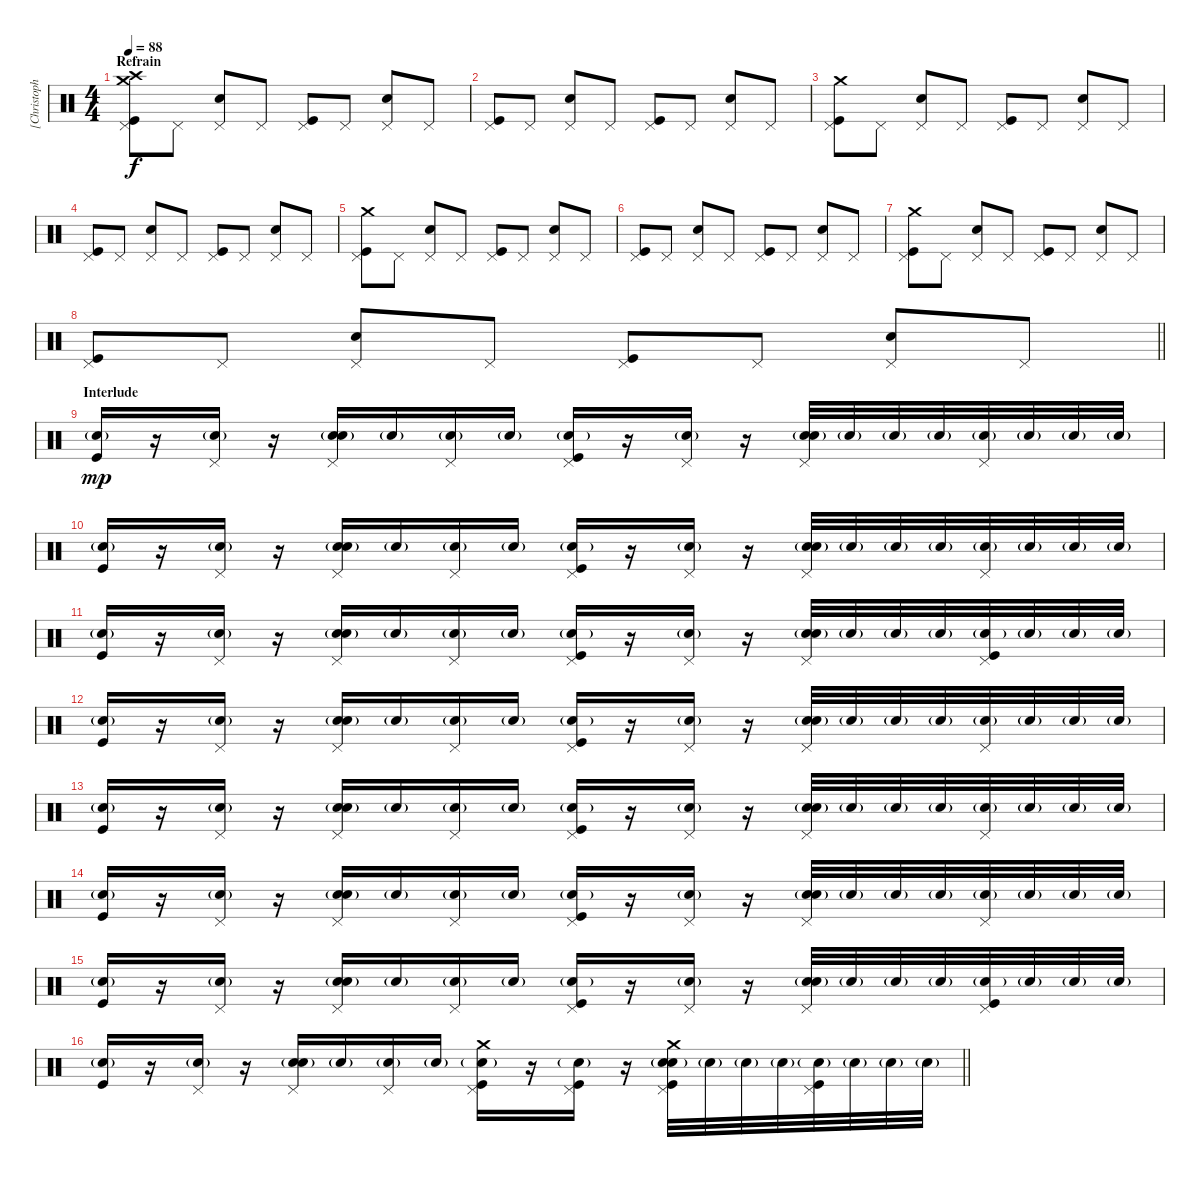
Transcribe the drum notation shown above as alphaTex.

\track ("[Christoph Schneider]  Drums" "[Christoph") {instrument percussion}
\staff {score}
\articulation defaults
\ts (4 4)
\section ("" "Refrain")
\tempo 88
\clef neutral
\ks c
("Crash medium (hit)" "Pedal Hi-Hat (hit)" "Crash high (hit)" "Kick (hit)").8{dy f} "Pedal Hi-Hat (hit)".8 ("Pedal Hi-Hat (hit)" "Electric Snare (hit)").8 "Pedal Hi-Hat (hit)".8 ("Pedal Hi-Hat (hit)" "Kick (hit)").8 "Pedal Hi-Hat (hit)".8 ("Pedal Hi-Hat (hit)" "Electric Snare (hit)").8 "Pedal Hi-Hat (hit)".8 |
("Pedal Hi-Hat (hit)" "Kick (hit)").8 "Pedal Hi-Hat (hit)".8 ("Pedal Hi-Hat (hit)" "Electric Snare (hit)").8 "Pedal Hi-Hat (hit)".8 ("Pedal Hi-Hat (hit)" "Kick (hit)").8 "Pedal Hi-Hat (hit)".8 ("Pedal Hi-Hat (hit)" "Electric Snare (hit)").8 "Pedal Hi-Hat (hit)".8 |
("Crash medium (hit)" "Pedal Hi-Hat (hit)" "Kick (hit)").8 "Pedal Hi-Hat (hit)".8 ("Pedal Hi-Hat (hit)" "Electric Snare (hit)").8 "Pedal Hi-Hat (hit)".8 ("Pedal Hi-Hat (hit)" "Kick (hit)").8 "Pedal Hi-Hat (hit)".8 ("Pedal Hi-Hat (hit)" "Electric Snare (hit)").8 "Pedal Hi-Hat (hit)".8 |
("Pedal Hi-Hat (hit)" "Kick (hit)").8 "Pedal Hi-Hat (hit)".8 ("Pedal Hi-Hat (hit)" "Electric Snare (hit)").8 "Pedal Hi-Hat (hit)".8 ("Pedal Hi-Hat (hit)" "Kick (hit)").8 "Pedal Hi-Hat (hit)".8 ("Pedal Hi-Hat (hit)" "Electric Snare (hit)").8 "Pedal Hi-Hat (hit)".8 |
("Crash medium (hit)" "Pedal Hi-Hat (hit)" "Kick (hit)").8 "Pedal Hi-Hat (hit)".8 ("Pedal Hi-Hat (hit)" "Electric Snare (hit)").8 "Pedal Hi-Hat (hit)".8 ("Pedal Hi-Hat (hit)" "Kick (hit)").8 "Pedal Hi-Hat (hit)".8 ("Pedal Hi-Hat (hit)" "Electric Snare (hit)").8 "Pedal Hi-Hat (hit)".8 |
("Pedal Hi-Hat (hit)" "Kick (hit)").8 "Pedal Hi-Hat (hit)".8 ("Pedal Hi-Hat (hit)" "Electric Snare (hit)").8 "Pedal Hi-Hat (hit)".8 ("Pedal Hi-Hat (hit)" "Kick (hit)").8 "Pedal Hi-Hat (hit)".8 ("Pedal Hi-Hat (hit)" "Electric Snare (hit)").8 "Pedal Hi-Hat (hit)".8 |
("Crash medium (hit)" "Pedal Hi-Hat (hit)" "Kick (hit)").8 "Pedal Hi-Hat (hit)".8 ("Pedal Hi-Hat (hit)" "Electric Snare (hit)").8 "Pedal Hi-Hat (hit)".8 ("Pedal Hi-Hat (hit)" "Kick (hit)").8 "Pedal Hi-Hat (hit)".8 ("Pedal Hi-Hat (hit)" "Electric Snare (hit)").8 "Pedal Hi-Hat (hit)".8 |
\barLineRight lightlight
("Pedal Hi-Hat (hit)" "Kick (hit)").8 "Pedal Hi-Hat (hit)".8 ("Pedal Hi-Hat (hit)" "Electric Snare (hit)").8 "Pedal Hi-Hat (hit)".8 ("Pedal Hi-Hat (hit)" "Kick (hit)").8 "Pedal Hi-Hat (hit)".8 ("Pedal Hi-Hat (hit)" "Electric Snare (hit)").8 "Pedal Hi-Hat (hit)".8 |
\section ("" "Interlude")
("Kick (hit)" "Electric Snare (hit)"{g}).16{dy mp} r.16 ("Pedal Hi-Hat (hit)" "Electric Snare (hit)"{g}).16 r.16 ("Pedal Hi-Hat (hit)" "Snare (hit) 2" "Electric Snare (hit)"{g}).16 "Electric Snare (hit)"{g}.16 ("Pedal Hi-Hat (hit)" "Electric Snare (hit)"{g}).16 "Electric Snare (hit)"{g}.16 ("Pedal Hi-Hat (hit)" "Kick (hit)" "Electric Snare (hit)"{g}).16 r.16 ("Pedal Hi-Hat (hit)" "Electric Snare (hit)"{g}).16 r.16 ("Pedal Hi-Hat (hit)" "Snare (hit) 2" "Electric Snare (hit)"{g}).32 "Electric Snare (hit)"{g}.32 "Electric Snare (hit)"{g}.32 "Electric Snare (hit)"{g}.32 ("Pedal Hi-Hat (hit)" "Electric Snare (hit)"{g}).32 "Electric Snare (hit)"{g}.32 "Electric Snare (hit)"{g}.32 "Electric Snare (hit)"{g}.32 |
("Kick (hit)" "Electric Snare (hit)"{g}).16 r.16 ("Pedal Hi-Hat (hit)" "Electric Snare (hit)"{g}).16 r.16 ("Pedal Hi-Hat (hit)" "Snare (hit) 2" "Electric Snare (hit)"{g}).16 "Electric Snare (hit)"{g}.16 ("Pedal Hi-Hat (hit)" "Electric Snare (hit)"{g}).16 "Electric Snare (hit)"{g}.16 ("Pedal Hi-Hat (hit)" "Kick (hit)" "Electric Snare (hit)"{g}).16 r.16 ("Pedal Hi-Hat (hit)" "Electric Snare (hit)"{g}).16 r.16 ("Pedal Hi-Hat (hit)" "Snare (hit) 2" "Electric Snare (hit)"{g}).32 "Electric Snare (hit)"{g}.32 "Electric Snare (hit)"{g}.32 "Electric Snare (hit)"{g}.32 ("Pedal Hi-Hat (hit)" "Electric Snare (hit)"{g}).32 "Electric Snare (hit)"{g}.32 "Electric Snare (hit)"{g}.32 "Electric Snare (hit)"{g}.32 |
("Kick (hit)" "Electric Snare (hit)"{g}).16 r.16 ("Pedal Hi-Hat (hit)" "Electric Snare (hit)"{g}).16 r.16 ("Pedal Hi-Hat (hit)" "Snare (hit) 2" "Electric Snare (hit)"{g}).16 "Electric Snare (hit)"{g}.16 ("Pedal Hi-Hat (hit)" "Electric Snare (hit)"{g}).16 "Electric Snare (hit)"{g}.16 ("Pedal Hi-Hat (hit)" "Kick (hit)" "Electric Snare (hit)"{g}).16 r.16 ("Pedal Hi-Hat (hit)" "Electric Snare (hit)"{g}).16 r.16 ("Pedal Hi-Hat (hit)" "Snare (hit) 2" "Electric Snare (hit)"{g}).32 "Electric Snare (hit)"{g}.32 "Electric Snare (hit)"{g}.32 "Electric Snare (hit)"{g}.32 ("Kick (hit)" "Pedal Hi-Hat (hit)" "Electric Snare (hit)"{g}).32 "Electric Snare (hit)"{g}.32 "Electric Snare (hit)"{g}.32 "Electric Snare (hit)"{g}.32 |
("Kick (hit)" "Electric Snare (hit)"{g}).16 r.16 ("Pedal Hi-Hat (hit)" "Electric Snare (hit)"{g}).16 r.16 ("Pedal Hi-Hat (hit)" "Snare (hit) 2" "Electric Snare (hit)"{g}).16 "Electric Snare (hit)"{g}.16 ("Pedal Hi-Hat (hit)" "Electric Snare (hit)"{g}).16 "Electric Snare (hit)"{g}.16 ("Pedal Hi-Hat (hit)" "Kick (hit)" "Electric Snare (hit)"{g}).16 r.16 ("Pedal Hi-Hat (hit)" "Electric Snare (hit)"{g}).16 r.16 ("Pedal Hi-Hat (hit)" "Snare (hit) 2" "Electric Snare (hit)"{g}).32 "Electric Snare (hit)"{g}.32 "Electric Snare (hit)"{g}.32 "Electric Snare (hit)"{g}.32 ("Pedal Hi-Hat (hit)" "Electric Snare (hit)"{g}).32 "Electric Snare (hit)"{g}.32 "Electric Snare (hit)"{g}.32 "Electric Snare (hit)"{g}.32 |
("Kick (hit)" "Electric Snare (hit)"{g}).16 r.16 ("Pedal Hi-Hat (hit)" "Electric Snare (hit)"{g}).16 r.16 ("Pedal Hi-Hat (hit)" "Snare (hit) 2" "Electric Snare (hit)"{g}).16 "Electric Snare (hit)"{g}.16 ("Pedal Hi-Hat (hit)" "Electric Snare (hit)"{g}).16 "Electric Snare (hit)"{g}.16 ("Pedal Hi-Hat (hit)" "Kick (hit)" "Electric Snare (hit)"{g}).16 r.16 ("Pedal Hi-Hat (hit)" "Electric Snare (hit)"{g}).16 r.16 ("Pedal Hi-Hat (hit)" "Snare (hit) 2" "Electric Snare (hit)"{g}).32 "Electric Snare (hit)"{g}.32 "Electric Snare (hit)"{g}.32 "Electric Snare (hit)"{g}.32 ("Pedal Hi-Hat (hit)" "Electric Snare (hit)"{g}).32 "Electric Snare (hit)"{g}.32 "Electric Snare (hit)"{g}.32 "Electric Snare (hit)"{g}.32 |
("Kick (hit)" "Electric Snare (hit)"{g}).16 r.16 ("Pedal Hi-Hat (hit)" "Electric Snare (hit)"{g}).16 r.16 ("Pedal Hi-Hat (hit)" "Snare (hit) 2" "Electric Snare (hit)"{g}).16 "Electric Snare (hit)"{g}.16 ("Pedal Hi-Hat (hit)" "Electric Snare (hit)"{g}).16 "Electric Snare (hit)"{g}.16 ("Pedal Hi-Hat (hit)" "Kick (hit)" "Electric Snare (hit)"{g}).16 r.16 ("Pedal Hi-Hat (hit)" "Electric Snare (hit)"{g}).16 r.16 ("Pedal Hi-Hat (hit)" "Snare (hit) 2" "Electric Snare (hit)"{g}).32 "Electric Snare (hit)"{g}.32 "Electric Snare (hit)"{g}.32 "Electric Snare (hit)"{g}.32 ("Pedal Hi-Hat (hit)" "Electric Snare (hit)"{g}).32 "Electric Snare (hit)"{g}.32 "Electric Snare (hit)"{g}.32 "Electric Snare (hit)"{g}.32 |
("Kick (hit)" "Electric Snare (hit)"{g}).16 r.16 ("Pedal Hi-Hat (hit)" "Electric Snare (hit)"{g}).16 r.16 ("Pedal Hi-Hat (hit)" "Snare (hit) 2" "Electric Snare (hit)"{g}).16 "Electric Snare (hit)"{g}.16 ("Pedal Hi-Hat (hit)" "Electric Snare (hit)"{g}).16 "Electric Snare (hit)"{g}.16 ("Pedal Hi-Hat (hit)" "Kick (hit)" "Electric Snare (hit)"{g}).16 r.16 ("Pedal Hi-Hat (hit)" "Electric Snare (hit)"{g}).16 r.16 ("Pedal Hi-Hat (hit)" "Snare (hit) 2" "Electric Snare (hit)"{g}).32 "Electric Snare (hit)"{g}.32 "Electric Snare (hit)"{g}.32 "Electric Snare (hit)"{g}.32 ("Kick (hit)" "Pedal Hi-Hat (hit)" "Electric Snare (hit)"{g}).32 "Electric Snare (hit)"{g}.32 "Electric Snare (hit)"{g}.32 "Electric Snare (hit)"{g}.32 |
\barLineRight lightlight
("Kick (hit)" "Electric Snare (hit)"{g}).16 r.16 ("Pedal Hi-Hat (hit)" "Electric Snare (hit)"{g}).16 r.16 ("Pedal Hi-Hat (hit)" "Snare (hit) 2" "Electric Snare (hit)"{g}).16 "Electric Snare (hit)"{g}.16 ("Pedal Hi-Hat (hit)" "Electric Snare (hit)"{g}).16 "Electric Snare (hit)"{g}.16 ("Crash medium (hit)" "Pedal Hi-Hat (hit)" "Kick (hit)" "Electric Snare (hit)"{g}).16 r.16 ("Pedal Hi-Hat (hit)" "Kick (hit)" "Electric Snare (hit)"{g}).16 r.16 ("Crash medium (hit)" "Pedal Hi-Hat (hit)" "Kick (hit)" "Snare (hit) 2" "Electric Snare (hit)"{g}).32 "Electric Snare (hit)"{g}.32 "Electric Snare (hit)"{g}.32 "Electric Snare (hit)"{g}.32 ("Pedal Hi-Hat (hit)" "Kick (hit)" "Electric Snare (hit)"{g}).32 "Electric Snare (hit)"{g}.32 "Electric Snare (hit)"{g}.32 "Electric Snare (hit)"{g}.32
